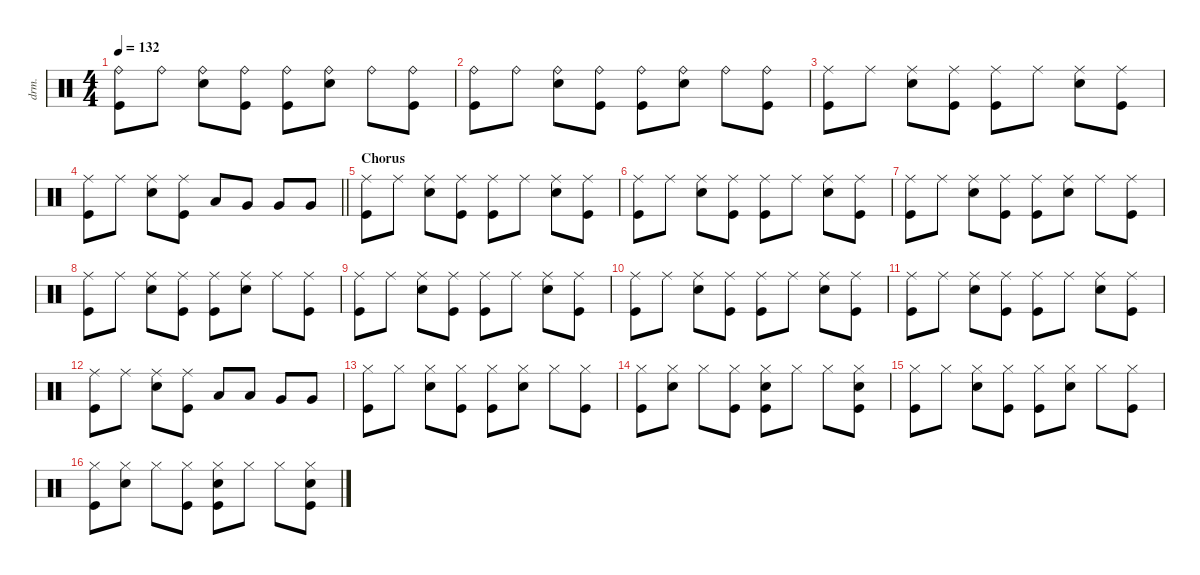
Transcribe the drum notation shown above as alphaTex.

\defaultSystemsLayout 4
\hideDynamics
\bracketExtendMode nobrackets
\otherSystemsTrackNameOrientation horizontal
\track ("Drums" "drm.") {instrument percussion}
\staff {score}
\articulation defaults
\ts (4 4)
\tempo 132
\clef neutral
\ks c
("Ride (bell)" "Kick (hit)").8{dy f beam Down} "Ride (bell)".8{beam Down} ("Ride (bell)" "Snare (hit) 2").8{beam Down} ("Ride (bell)" "Kick (hit)").8{beam Down} ("Ride (bell)" "Kick (hit)").8{beam Down} ("Ride (bell)" "Snare (hit) 2").8{beam Down} "Ride (bell)".8{beam Down} ("Ride (bell)" "Kick (hit)").8{beam Down} |
("Ride (bell)" "Kick (hit)").8{beam Down} "Ride (bell)".8{beam Down} ("Ride (bell)" "Snare (hit) 2").8{beam Down} ("Ride (bell)" "Kick (hit)").8{beam Down} ("Ride (bell)" "Kick (hit)").8{beam Down} ("Ride (bell)" "Snare (hit) 2").8{beam Down} "Ride (bell)".8{beam Down} ("Ride (bell)" "Kick (hit)").8{beam Down} |
("Ride (middle)" "Kick (hit)").8{beam Down} "Ride (middle)".8{beam Down} ("Ride (middle)" "Snare (hit) 2").8{beam Down} ("Ride (middle)" "Kick (hit)").8{beam Down} ("Ride (middle)" "Kick (hit)").8{beam Down} "Ride (middle)".8{beam Down} ("Ride (middle)" "Snare (hit) 2").8{beam Down} ("Ride (middle)" "Kick (hit)").8{beam Down} |
\barLineRight lightlight
("Ride (middle)" "Kick (hit)").8{beam Down} "Ride (middle)".8{beam Down} ("Ride (middle)" "Snare (hit) 2").8{beam Down} ("Ride (middle)" "Kick (hit)").8{beam Down} "Low Tom (hit)".8{beam Up} "Very Low Tom (hit)".8{beam Up} "Very Low Tom (hit)".8{beam Up} "Very Low Tom (hit)".8{beam Up} |
\section ("" "Chorus")
("Ride (middle)" "Kick (hit)").8{beam Down} "Ride (middle)".8{beam Down} ("Ride (middle)" "Snare (hit) 2").8{beam Down} ("Ride (middle)" "Kick (hit)").8{beam Down} ("Ride (middle)" "Kick (hit)").8{beam Down} "Ride (middle)".8{beam Down} ("Ride (middle)" "Snare (hit) 2").8{beam Down} ("Ride (middle)" "Kick (hit)").8{beam Down} |
("Ride (middle)" "Kick (hit)").8{beam Down} "Ride (middle)".8{beam Down} ("Ride (middle)" "Snare (hit) 2").8{beam Down} ("Ride (middle)" "Kick (hit)").8{beam Down} ("Ride (middle)" "Kick (hit)").8{beam Down} "Ride (middle)".8{beam Down} ("Ride (middle)" "Snare (hit) 2").8{beam Down} ("Ride (middle)" "Kick (hit)").8{beam Down} |
("Ride (middle)" "Kick (hit)").8{beam Down} "Ride (middle)".8{beam Down} ("Ride (middle)" "Snare (hit) 2").8{beam Down} ("Ride (middle)" "Kick (hit)").8{beam Down} ("Ride (middle)" "Kick (hit)").8{beam Down} ("Ride (middle)" "Snare (hit) 2").8{beam Down} "Ride (middle)".8{beam Down} ("Ride (middle)" "Kick (hit)").8{beam Down} |
("Ride (middle)" "Kick (hit)").8{beam Down} "Ride (middle)".8{beam Down} ("Ride (middle)" "Snare (hit) 2").8{beam Down} ("Ride (middle)" "Kick (hit)").8{beam Down} ("Ride (middle)" "Kick (hit)").8{beam Down} ("Ride (middle)" "Snare (hit) 2").8{beam Down} "Ride (middle)".8{beam Down} ("Ride (middle)" "Kick (hit)").8{beam Down} |
("Ride (middle)" "Kick (hit)").8{beam Down} "Ride (middle)".8{beam Down} ("Ride (middle)" "Snare (hit) 2").8{beam Down} ("Ride (middle)" "Kick (hit)").8{beam Down} ("Ride (middle)" "Kick (hit)").8{beam Down} "Ride (middle)".8{beam Down} ("Ride (middle)" "Snare (hit) 2").8{beam Down} ("Ride (middle)" "Kick (hit)").8{beam Down} |
("Ride (middle)" "Kick (hit)").8{beam Down} "Ride (middle)".8{beam Down} ("Ride (middle)" "Snare (hit) 2").8{beam Down} ("Ride (middle)" "Kick (hit)").8{beam Down} ("Ride (middle)" "Kick (hit)").8{beam Down} "Ride (middle)".8{beam Down} ("Ride (middle)" "Snare (hit) 2").8{beam Down} ("Ride (middle)" "Kick (hit)").8{beam Down} |
("Ride (middle)" "Kick (hit)").8{beam Down} "Ride (middle)".8{beam Down} ("Ride (middle)" "Snare (hit) 2").8{beam Down} ("Ride (middle)" "Kick (hit)").8{beam Down} ("Ride (middle)" "Kick (hit)").8{beam Down} "Ride (middle)".8{beam Down} ("Ride (middle)" "Snare (hit) 2").8{beam Down} ("Ride (middle)" "Kick (hit)").8{beam Down} |
("Ride (middle)" "Kick (hit)").8{beam Down} "Ride (middle)".8{beam Down} ("Ride (middle)" "Snare (hit) 2").8{beam Down} ("Ride (middle)" "Kick (hit)").8{beam Down} "Low Tom (hit)".8{beam Up} "Low Tom (hit)".8{beam Up} "Very Low Tom (hit)".8{beam Up} "Very Low Tom (hit)".8{beam Up} |
("Hi-Hat (closed)" "Kick (hit)").8{beam Down} "Hi-Hat (closed)".8{beam Down} ("Hi-Hat (closed)" "Snare (hit) 2").8{beam Down} ("Hi-Hat (closed)" "Kick (hit)").8{beam Down} ("Hi-Hat (closed)" "Kick (hit)").8{beam Down} ("Hi-Hat (closed)" "Snare (hit) 2").8{beam Down} "Hi-Hat (closed)".8{beam Down} ("Hi-Hat (closed)" "Kick (hit)").8{beam Down} |
("Hi-Hat (closed)" "Kick (hit)").8{beam Down} ("Hi-Hat (closed)" "Snare (hit) 2").8{beam Down} "Hi-Hat (closed)".8{beam Down} ("Hi-Hat (closed)" "Kick (hit)").8{beam Down} ("Hi-Hat (closed)" "Snare (hit) 2" "Kick (hit)").8{beam Down} "Hi-Hat (closed)".8{beam Down} "Hi-Hat (closed)".8{beam Down} ("Hi-Hat (closed)" "Snare (hit) 2" "Kick (hit)").8{beam Down} |
("Hi-Hat (closed)" "Kick (hit)").8{beam Down} "Hi-Hat (closed)".8{beam Down} ("Hi-Hat (closed)" "Snare (hit) 2").8{beam Down} ("Hi-Hat (closed)" "Kick (hit)").8{beam Down} ("Hi-Hat (closed)" "Kick (hit)").8{beam Down} ("Hi-Hat (closed)" "Snare (hit) 2").8{beam Down} "Hi-Hat (closed)".8{beam Down} ("Hi-Hat (closed)" "Kick (hit)").8{beam Down} |
("Hi-Hat (closed)" "Kick (hit)").8{beam Down} ("Hi-Hat (closed)" "Snare (hit) 2").8{beam Down} "Hi-Hat (closed)".8{beam Down} ("Hi-Hat (closed)" "Kick (hit)").8{beam Down} ("Hi-Hat (closed)" "Snare (hit) 2" "Kick (hit)").8{beam Down} "Hi-Hat (closed)".8{beam Down} "Hi-Hat (closed)".8{beam Down} ("Hi-Hat (closed)" "Snare (hit) 2" "Kick (hit)").8{beam Down}
